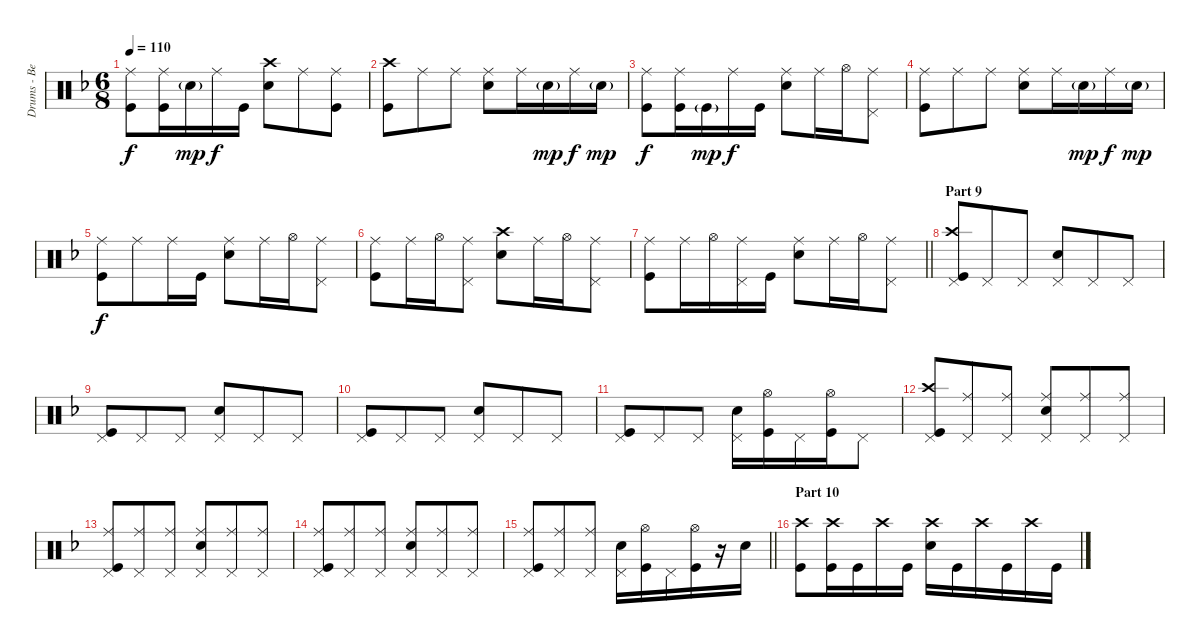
\track ("Drums - Ben Johnston" "Drums - Be") {instrument percussion}
\staff {score}
\articulation defaults
\ts (6 8)
\tempo 110
\clef neutral
\ks dminor
("Ride (middle)" "Kick (hit)").8{dy f} ("Ride (middle)" "Kick (hit)").16 "Snare (hit) 2"{g}.16{dy mp} "Ride (middle)".16{dy f} "Kick (hit)".16 ("Crash high (hit)" "Snare (hit) 2").8 "Ride (middle)".8 ("Ride (middle)" "Kick (hit)").8 |
("Crash high (hit)" "Kick (hit)").8 "Ride (middle)".8 "Ride (middle)".8 ("Ride (middle)" "Snare (hit) 2").8 "Ride (middle)".16 "Snare (hit) 2"{g}.16{dy mp} "Ride (middle)".16{dy f} "Snare (hit) 2"{g}.16{dy mp} |
("Ride (middle)" "Kick (hit)").8{dy f} ("Ride (middle)" "Kick (hit)").16 "Kick (hit)"{g}.16{dy mp} "Ride (middle)".16{dy f} "Kick (hit)".16 ("Ride (middle)" "Snare (hit) 2").8 "Ride (middle)".16 "Hi-Hat (open)".16 ("Ride (middle)" "Pedal Hi-Hat (hit)").8 |
("Ride (middle)" "Kick (hit)").8 "Ride (middle)".8 "Ride (middle)".8 ("Ride (middle)" "Snare (hit) 2").8 "Ride (middle)".16 "Snare (hit) 2"{g}.16{dy mp} "Ride (middle)".16{dy f} "Snare (hit) 2"{g}.16{dy mp} |
("Ride (middle)" "Kick (hit)").8{dy f} "Ride (middle)".8 "Ride (middle)".16 "Kick (hit)".16 ("Ride (middle)" "Snare (hit) 2").8 "Ride (middle)".16 "Hi-Hat (open)".16 ("Ride (middle)" "Pedal Hi-Hat (hit)").8 |
("Ride (middle)" "Kick (hit)").8 "Ride (middle)".16 "Hi-Hat (open)".16 ("Ride (middle)" "Pedal Hi-Hat (hit)").8 ("Crash high (hit)" "Snare (hit) 2").8 "Ride (middle)".16 "Hi-Hat (open)".16 ("Ride (middle)" "Pedal Hi-Hat (hit)").8 |
\barLineRight lightlight
("Ride (middle)" "Kick (hit)").8 "Ride (middle)".16 "Hi-Hat (open)".16 ("Ride (middle)" "Pedal Hi-Hat (hit)").16 "Kick (hit)".16 ("Ride (middle)" "Snare (hit) 2").8 "Ride (middle)".16 "Hi-Hat (open)".16 ("Ride (middle)" "Pedal Hi-Hat (hit)").8 |
\section ("" "Part 9")
("Crash high (hit)" "Pedal Hi-Hat (hit)" "Kick (hit)").8 "Pedal Hi-Hat (hit)".8 "Pedal Hi-Hat (hit)".8 ("Pedal Hi-Hat (hit)" "Snare (hit) 2").8 "Pedal Hi-Hat (hit)".8 "Pedal Hi-Hat (hit)".8 |
("Pedal Hi-Hat (hit)" "Kick (hit)").8 "Pedal Hi-Hat (hit)".8 "Pedal Hi-Hat (hit)".8 ("Pedal Hi-Hat (hit)" "Snare (hit) 2").8 "Pedal Hi-Hat (hit)".8 "Pedal Hi-Hat (hit)".8 |
("Pedal Hi-Hat (hit)" "Kick (hit)").8 "Pedal Hi-Hat (hit)".8 "Pedal Hi-Hat (hit)".8 ("Pedal Hi-Hat (hit)" "Snare (hit) 2").8 "Pedal Hi-Hat (hit)".8 "Pedal Hi-Hat (hit)".8 |
("Pedal Hi-Hat (hit)" "Kick (hit)").8 "Pedal Hi-Hat (hit)".8 "Pedal Hi-Hat (hit)".8 ("Pedal Hi-Hat (hit)" "Snare (hit) 2").16 ("Hi-Hat (open)" "Kick (hit)").16 "Pedal Hi-Hat (hit)".16 ("Hi-Hat (open)" "Kick (hit)").16 "Pedal Hi-Hat (hit)".8 |
("Crash high (hit)" "Pedal Hi-Hat (hit)" "Kick (hit)").8 ("Ride (middle)" "Pedal Hi-Hat (hit)").8 ("Ride (middle)" "Pedal Hi-Hat (hit)").8 ("Ride (middle)" "Pedal Hi-Hat (hit)" "Snare (hit) 2").8 ("Ride (middle)" "Pedal Hi-Hat (hit)").8 ("Ride (middle)" "Pedal Hi-Hat (hit)").8 |
("Ride (middle)" "Pedal Hi-Hat (hit)" "Kick (hit)").8 ("Ride (middle)" "Pedal Hi-Hat (hit)").8 ("Ride (middle)" "Pedal Hi-Hat (hit)").8 ("Ride (middle)" "Pedal Hi-Hat (hit)" "Snare (hit) 2").8 ("Ride (middle)" "Pedal Hi-Hat (hit)").8 ("Ride (middle)" "Pedal Hi-Hat (hit)").8 |
("Ride (middle)" "Pedal Hi-Hat (hit)" "Kick (hit)").8 ("Ride (middle)" "Pedal Hi-Hat (hit)").8 ("Ride (middle)" "Pedal Hi-Hat (hit)").8 ("Ride (middle)" "Pedal Hi-Hat (hit)" "Snare (hit) 2").8 ("Ride (middle)" "Pedal Hi-Hat (hit)").8 ("Ride (middle)" "Pedal Hi-Hat (hit)").8 |
\barLineRight lightlight
("Ride (middle)" "Pedal Hi-Hat (hit)" "Kick (hit)").8 ("Ride (middle)" "Pedal Hi-Hat (hit)").8 ("Ride (middle)" "Pedal Hi-Hat (hit)").8 ("Pedal Hi-Hat (hit)" "Snare (hit) 2").16 ("Hi-Hat (open)" "Kick (hit)").16 "Pedal Hi-Hat (hit)".16 ("Hi-Hat (open)" "Kick (hit)").16 r.16 "Snare (hit) 2".16 |
\section ("" "Part 10")
("Crash high (hit)" "Kick (hit)").8 ("Crash high (hit)" "Kick (hit)").16 "Kick (hit)".16 "Crash high (hit)".16 "Kick (hit)".16 ("Crash high (hit)" "Snare (hit) 2").16 "Kick (hit)".16 "Crash high (hit)".16 "Kick (hit)".16 "Crash high (hit)".16 "Kick (hit)".16
